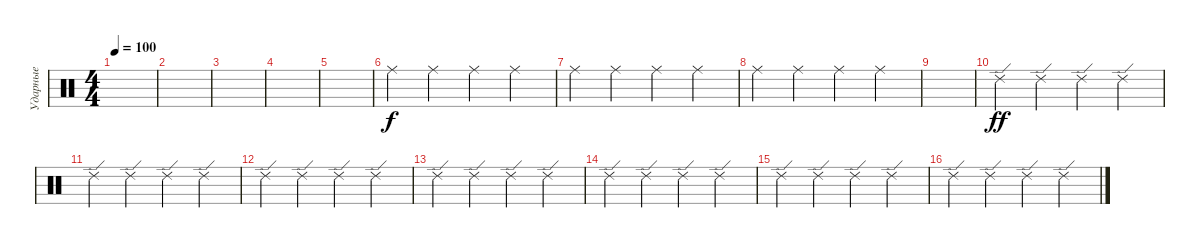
\track ("Ударные" "Ударные") {instrument percussion}
\staff {score}
\articulation defaults
\ts (4 4)
\tempo 100
\clef neutral
\ks c
|
|
|
|
|
"Ride (middle)".4{dy f} "Ride (middle)".4 "Ride (middle)".4 "Ride (middle)".4 |
"Ride (middle)".4 "Ride (middle)".4 "Ride (middle)".4 "Ride (middle)".4 |
"Ride (middle)".4 "Ride (middle)".4 "Ride (middle)".4 "Ride (middle)".4 |
|
"Ride (edge) 2".4{dy ff} "Ride (edge) 2".4 "Ride (edge) 2".4 "Ride (edge) 2".4 |
"Ride (edge) 2".4 "Ride (edge) 2".4 "Ride (edge) 2".4 "Ride (edge) 2".4 |
"Ride (edge) 2".4 "Ride (edge) 2".4 "Ride (edge) 2".4 "Ride (edge) 2".4 |
"Ride (edge) 2".4 "Ride (edge) 2".4 "Ride (edge) 2".4 "Ride (edge) 2".4 |
"Ride (edge) 2".4 "Ride (edge) 2".4 "Ride (edge) 2".4 "Ride (edge) 2".4 |
"Ride (edge) 2".4 "Ride (edge) 2".4 "Ride (edge) 2".4 "Ride (edge) 2".4 |
"Ride (edge) 2".4 "Ride (edge) 2".4 "Ride (edge) 2".4 "Ride (edge) 2".4
